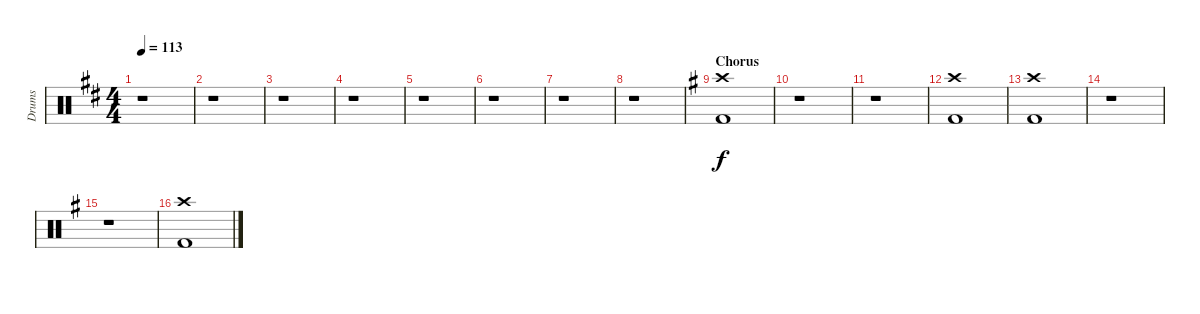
\track ("Drums" "Drums") {instrument percussion}
\staff {score}
\articulation defaults
\ts (4 4)
\tempo 113
\clef neutral
\ks d
r.1{dy f} |
r.1 |
r.1 |
r.1 |
r.1 |
r.1 |
r.1 |
r.1 |
\section ("" "Chorus")
\ks g
("Crash high (hit)" "Kick (hit) 2").1 |
r.1 |
r.1 |
("Crash high (hit)" "Kick (hit) 2").1 |
("Crash high (hit)" "Kick (hit) 2").1 |
r.1 |
r.1 |
("Crash high (hit)" "Kick (hit) 2").1
